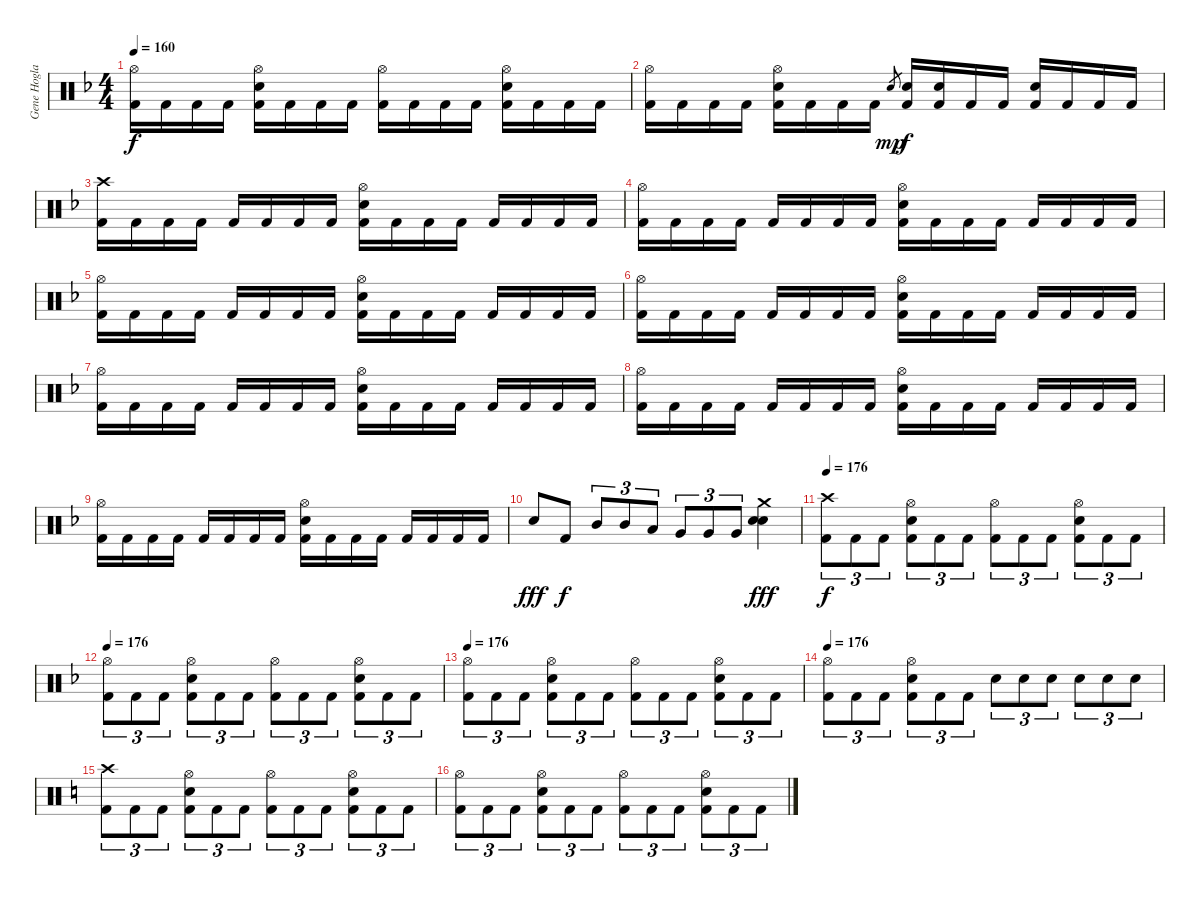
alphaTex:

\track ("Gene Hoglan" "Gene Hogla") {instrument percussion}
\staff {score}
\articulation defaults
\ts (4 4)
\tempo 160
\clef neutral
\ks f
("Hi-Hat (open)" "Kick (hit) 2").16{dy f} "Kick (hit) 2".16 "Kick (hit) 2".16 "Kick (hit) 2".16 ("Hi-Hat (open)" "Snare (hit) 2" "Kick (hit) 2").16 "Kick (hit) 2".16 "Kick (hit) 2".16 "Kick (hit) 2".16 ("Hi-Hat (open)" "Kick (hit) 2").16 "Kick (hit) 2".16 "Kick (hit) 2".16 "Kick (hit) 2".16 ("Hi-Hat (open)" "Snare (hit) 2" "Kick (hit) 2").16 "Kick (hit) 2".16 "Kick (hit) 2".16 "Kick (hit) 2".16 |
("Hi-Hat (open)" "Kick (hit) 2").16 "Kick (hit) 2".16 "Kick (hit) 2".16 "Kick (hit) 2".16 ("Hi-Hat (open)" "Snare (hit) 2" "Kick (hit) 2").16 "Kick (hit) 2".16 "Kick (hit) 2".16 "Kick (hit) 2".16 "Snare (hit) 2".8{gr dy mp} ("Snare (hit) 2" "Kick (hit) 2").16{dy f} ("Snare (hit) 2" "Kick (hit) 2").16 "Kick (hit) 2".16 "Kick (hit) 2".16 ("Snare (hit) 2" "Kick (hit) 2").16 "Kick (hit) 2".16 "Kick (hit) 2".16 "Kick (hit) 2".16 |
("Crash high (hit)" "Kick (hit) 2").16 "Kick (hit) 2".16 "Kick (hit) 2".16 "Kick (hit) 2".16 "Kick (hit) 2".16 "Kick (hit) 2".16 "Kick (hit) 2".16 "Kick (hit) 2".16 ("Hi-Hat (open)" "Snare (hit) 2" "Kick (hit) 2").16 "Kick (hit) 2".16 "Kick (hit) 2".16 "Kick (hit) 2".16 "Kick (hit) 2".16 "Kick (hit) 2".16 "Kick (hit) 2".16 "Kick (hit) 2".16 |
("Hi-Hat (open)" "Kick (hit) 2").16 "Kick (hit) 2".16 "Kick (hit) 2".16 "Kick (hit) 2".16 "Kick (hit) 2".16 "Kick (hit) 2".16 "Kick (hit) 2".16 "Kick (hit) 2".16 ("Hi-Hat (open)" "Snare (hit) 2" "Kick (hit) 2").16 "Kick (hit) 2".16 "Kick (hit) 2".16 "Kick (hit) 2".16 "Kick (hit) 2".16 "Kick (hit) 2".16 "Kick (hit) 2".16 "Kick (hit) 2".16 |
("Hi-Hat (open)" "Kick (hit) 2").16 "Kick (hit) 2".16 "Kick (hit) 2".16 "Kick (hit) 2".16 "Kick (hit) 2".16 "Kick (hit) 2".16 "Kick (hit) 2".16 "Kick (hit) 2".16 ("Hi-Hat (open)" "Snare (hit) 2" "Kick (hit) 2").16 "Kick (hit) 2".16 "Kick (hit) 2".16 "Kick (hit) 2".16 "Kick (hit) 2".16 "Kick (hit) 2".16 "Kick (hit) 2".16 "Kick (hit) 2".16 |
("Hi-Hat (open)" "Kick (hit) 2").16 "Kick (hit) 2".16 "Kick (hit) 2".16 "Kick (hit) 2".16 "Kick (hit) 2".16 "Kick (hit) 2".16 "Kick (hit) 2".16 "Kick (hit) 2".16 ("Hi-Hat (open)" "Snare (hit) 2" "Kick (hit) 2").16 "Kick (hit) 2".16 "Kick (hit) 2".16 "Kick (hit) 2".16 "Kick (hit) 2".16 "Kick (hit) 2".16 "Kick (hit) 2".16 "Kick (hit) 2".16 |
("Hi-Hat (open)" "Kick (hit) 2").16 "Kick (hit) 2".16 "Kick (hit) 2".16 "Kick (hit) 2".16 "Kick (hit) 2".16 "Kick (hit) 2".16 "Kick (hit) 2".16 "Kick (hit) 2".16 ("Hi-Hat (open)" "Snare (hit) 2" "Kick (hit) 2").16 "Kick (hit) 2".16 "Kick (hit) 2".16 "Kick (hit) 2".16 "Kick (hit) 2".16 "Kick (hit) 2".16 "Kick (hit) 2".16 "Kick (hit) 2".16 |
("Hi-Hat (open)" "Kick (hit) 2").16 "Kick (hit) 2".16 "Kick (hit) 2".16 "Kick (hit) 2".16 "Kick (hit) 2".16 "Kick (hit) 2".16 "Kick (hit) 2".16 "Kick (hit) 2".16 ("Hi-Hat (open)" "Snare (hit) 2" "Kick (hit) 2").16 "Kick (hit) 2".16 "Kick (hit) 2".16 "Kick (hit) 2".16 "Kick (hit) 2".16 "Kick (hit) 2".16 "Kick (hit) 2".16 "Kick (hit) 2".16 |
("Hi-Hat (open)" "Kick (hit) 2").16 "Kick (hit) 2".16 "Kick (hit) 2".16 "Kick (hit) 2".16 "Kick (hit) 2".16 "Kick (hit) 2".16 "Kick (hit) 2".16 "Kick (hit) 2".16 ("Hi-Hat (open)" "Snare (hit) 2" "Kick (hit) 2").16 "Kick (hit) 2".16 "Kick (hit) 2".16 "Kick (hit) 2".16 "Kick (hit) 2".16 "Kick (hit) 2".16 "Kick (hit) 2".16 "Kick (hit) 2".16 |
"Snare (hit) 2".8{dy fff} "Kick (hit) 2".8{dy f} "Mid Tom (hit)".8{tu (3 2)} "Mid Tom (hit)".8{tu (3 2)} "Low Tom (hit)".8{tu (3 2)} "Very Low Tom (hit)".8{tu (3 2)} "Very Low Tom (hit)".8{tu (3 2)} "Very Low Tom (hit)".8{tu (3 2)} ("Crash medium (hit)" "Snare (hit) 2" "Snare (hit) 2").4{dy fff} |
\tempo 176
("Crash high (hit)" "Kick (hit) 2").8{tu (3 2) dy f} "Kick (hit) 2".8{tu (3 2)} "Kick (hit) 2".8{tu (3 2)} ("Hi-Hat (open)" "Snare (hit) 2" "Kick (hit) 2").8{tu (3 2)} "Kick (hit) 2".8{tu (3 2)} "Kick (hit) 2".8{tu (3 2)} ("Hi-Hat (open)" "Kick (hit) 2").8{tu (3 2)} "Kick (hit) 2".8{tu (3 2)} "Kick (hit) 2".8{tu (3 2)} ("Hi-Hat (open)" "Snare (hit) 2" "Kick (hit) 2").8{tu (3 2)} "Kick (hit) 2".8{tu (3 2)} "Kick (hit) 2".8{tu (3 2)} |
\tempo 176
("Hi-Hat (open)" "Kick (hit) 2").8{tu (3 2)} "Kick (hit) 2".8{tu (3 2)} "Kick (hit) 2".8{tu (3 2)} ("Hi-Hat (open)" "Snare (hit) 2" "Kick (hit) 2").8{tu (3 2)} "Kick (hit) 2".8{tu (3 2)} "Kick (hit) 2".8{tu (3 2)} ("Hi-Hat (open)" "Kick (hit) 2").8{tu (3 2)} "Kick (hit) 2".8{tu (3 2)} "Kick (hit) 2".8{tu (3 2)} ("Hi-Hat (open)" "Snare (hit) 2" "Kick (hit) 2").8{tu (3 2)} "Kick (hit) 2".8{tu (3 2)} "Kick (hit) 2".8{tu (3 2)} |
\tempo 176
("Hi-Hat (open)" "Kick (hit) 2").8{tu (3 2)} "Kick (hit) 2".8{tu (3 2)} "Kick (hit) 2".8{tu (3 2)} ("Hi-Hat (open)" "Snare (hit) 2" "Kick (hit) 2").8{tu (3 2)} "Kick (hit) 2".8{tu (3 2)} "Kick (hit) 2".8{tu (3 2)} ("Hi-Hat (open)" "Kick (hit) 2").8{tu (3 2)} "Kick (hit) 2".8{tu (3 2)} "Kick (hit) 2".8{tu (3 2)} ("Hi-Hat (open)" "Snare (hit) 2" "Kick (hit) 2").8{tu (3 2)} "Kick (hit) 2".8{tu (3 2)} "Kick (hit) 2".8{tu (3 2)} |
\tempo 176
("Hi-Hat (open)" "Kick (hit) 2").8{tu (3 2)} "Kick (hit) 2".8{tu (3 2)} "Kick (hit) 2".8{tu (3 2)} ("Hi-Hat (open)" "Snare (hit) 2" "Kick (hit) 2").8{tu (3 2)} "Kick (hit) 2".8{tu (3 2)} "Kick (hit) 2".8{tu (3 2)} "Snare (hit) 2".8{tu (3 2)} "Snare (hit) 2".8{tu (3 2)} "Snare (hit) 2".8{tu (3 2)} "Snare (hit) 2".8{tu (3 2)} "Snare (hit) 2".8{tu (3 2)} "Snare (hit) 2".8{tu (3 2)} |
\ks c
("Crash high (hit)" "Kick (hit) 2").8{tu (3 2)} "Kick (hit) 2".8{tu (3 2)} "Kick (hit) 2".8{tu (3 2)} ("Hi-Hat (open)" "Snare (hit) 2" "Kick (hit) 2").8{tu (3 2)} "Kick (hit) 2".8{tu (3 2)} "Kick (hit) 2".8{tu (3 2)} ("Hi-Hat (open)" "Kick (hit) 2").8{tu (3 2)} "Kick (hit) 2".8{tu (3 2)} "Kick (hit) 2".8{tu (3 2)} ("Hi-Hat (open)" "Snare (hit) 2" "Kick (hit) 2").8{tu (3 2)} "Kick (hit) 2".8{tu (3 2)} "Kick (hit) 2".8{tu (3 2)} |
("Hi-Hat (open)" "Kick (hit) 2").8{tu (3 2)} "Kick (hit) 2".8{tu (3 2)} "Kick (hit) 2".8{tu (3 2)} ("Hi-Hat (open)" "Snare (hit) 2" "Kick (hit) 2").8{tu (3 2)} "Kick (hit) 2".8{tu (3 2)} "Kick (hit) 2".8{tu (3 2)} ("Hi-Hat (open)" "Kick (hit) 2").8{tu (3 2)} "Kick (hit) 2".8{tu (3 2)} "Kick (hit) 2".8{tu (3 2)} ("Hi-Hat (open)" "Snare (hit) 2" "Kick (hit) 2").8{tu (3 2)} "Kick (hit) 2".8{tu (3 2)} "Kick (hit) 2".8{tu (3 2)}
